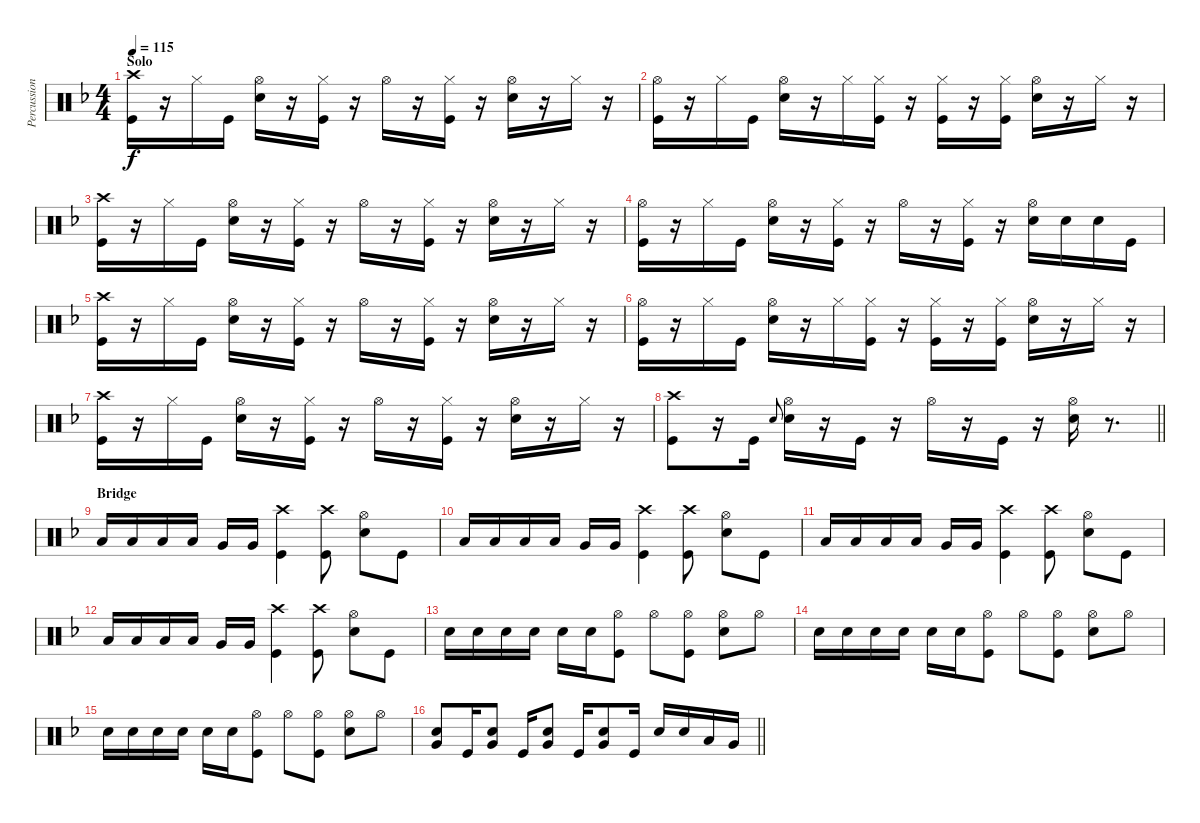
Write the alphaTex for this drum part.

\track ("Percussion" "Percussion") {instrument percussion}
\staff {score}
\articulation defaults
\ts (4 4)
\section ("" "Solo")
\tempo 115
\clef neutral
\ks f
("Crash high (hit)" "Kick (hit)").16{dy f} r.16 "Hi-Hat (closed)".16 "Kick (hit)".16 ("Hi-Hat (open)" "Electric Snare (hit)").16 r.16 ("Hi-Hat (closed)" "Kick (hit)").16 r.16 "Hi-Hat (open)".16 r.16 ("Hi-Hat (closed)" "Kick (hit)").16 r.16 ("Hi-Hat (open)" "Electric Snare (hit)").16 r.16 "Hi-Hat (closed)".16 r.16 |
("Hi-Hat (open)" "Kick (hit)").16 r.16 "Hi-Hat (closed)".16 "Kick (hit)".16 ("Hi-Hat (open)" "Electric Snare (hit)").16 r.16 "Hi-Hat (closed)".16 ("Hi-Hat (closed)" "Kick (hit)").16 r.16 ("Hi-Hat (closed)" "Kick (hit)").16 r.16 ("Hi-Hat (closed)" "Kick (hit)").16 ("Hi-Hat (open)" "Electric Snare (hit)").16 r.16 "Hi-Hat (closed)".16 r.16 |
("Crash high (hit)" "Kick (hit)").16 r.16 "Hi-Hat (closed)".16 "Kick (hit)".16 ("Hi-Hat (open)" "Electric Snare (hit)").16 r.16 ("Hi-Hat (closed)" "Kick (hit)").16 r.16 "Hi-Hat (open)".16 r.16 ("Hi-Hat (closed)" "Kick (hit)").16 r.16 ("Hi-Hat (open)" "Electric Snare (hit)").16 r.16 "Hi-Hat (closed)".16 r.16 |
("Hi-Hat (open)" "Kick (hit)").16 r.16 "Hi-Hat (closed)".16 "Kick (hit)".16 ("Hi-Hat (open)" "Electric Snare (hit)").16 r.16 ("Hi-Hat (closed)" "Kick (hit)").16 r.16 "Hi-Hat (open)".16 r.16 ("Hi-Hat (closed)" "Kick (hit)").16 r.16 ("Hi-Hat (open)" "Electric Snare (hit)").16 "Electric Snare (hit)".16 "Electric Snare (hit)".16 "Kick (hit)".16 |
("Crash high (hit)" "Kick (hit)").16 r.16 "Hi-Hat (closed)".16 "Kick (hit)".16 ("Hi-Hat (open)" "Electric Snare (hit)").16 r.16 ("Hi-Hat (closed)" "Kick (hit)").16 r.16 "Hi-Hat (open)".16 r.16 ("Hi-Hat (closed)" "Kick (hit)").16 r.16 ("Hi-Hat (open)" "Electric Snare (hit)").16 r.16 "Hi-Hat (closed)".16 r.16 |
("Hi-Hat (open)" "Kick (hit)").16 r.16 "Hi-Hat (closed)".16 "Kick (hit)".16 ("Hi-Hat (open)" "Electric Snare (hit)").16 r.16 "Hi-Hat (closed)".16 ("Hi-Hat (closed)" "Kick (hit)").16 r.16 ("Hi-Hat (closed)" "Kick (hit)").16 r.16 ("Hi-Hat (closed)" "Kick (hit)").16 ("Hi-Hat (open)" "Electric Snare (hit)").16 r.16 "Hi-Hat (closed)".16 r.16 |
("Crash high (hit)" "Kick (hit)").16 r.16 "Hi-Hat (closed)".16 "Kick (hit)".16 ("Hi-Hat (open)" "Electric Snare (hit)").16 r.16 ("Hi-Hat (closed)" "Kick (hit)").16 r.16 "Hi-Hat (open)".16 r.16 ("Hi-Hat (closed)" "Kick (hit)").16 r.16 ("Hi-Hat (open)" "Electric Snare (hit)").16 r.16 "Hi-Hat (closed)".16 r.16 |
\barLineRight lightlight
("Crash high (hit)" "Kick (hit)").8 r.16 "Kick (hit)".16 "Electric Snare (hit)".8{gr onbeat} ("Hi-Hat (open)" "Electric Snare (hit)").16 r.16 "Kick (hit)".16 r.16 "Hi-Hat (open)".16 r.16 "Kick (hit)".16 r.16 ("Hi-Hat (open)" "Electric Snare (hit)").16 r.8{d} |
\section ("" "Bridge")
"Low Tom (hit)".16 "Low Tom (hit)".16 "Low Tom (hit)".16 "Low Tom (hit)".16 "Very Low Tom (hit)".16 "Very Low Tom (hit)".16 ("Crash high (hit)" "Kick (hit)").4 ("Crash high (hit)" "Kick (hit)").8 ("Hi-Hat (open)" "Electric Snare (hit)").8 "Kick (hit)".8 |
"Low Tom (hit)".16 "Low Tom (hit)".16 "Low Tom (hit)".16 "Low Tom (hit)".16 "Very Low Tom (hit)".16 "Very Low Tom (hit)".16 ("Crash high (hit)" "Kick (hit)").4 ("Crash high (hit)" "Kick (hit)").8 ("Hi-Hat (open)" "Electric Snare (hit)").8 "Kick (hit)".8 |
"Low Tom (hit)".16 "Low Tom (hit)".16 "Low Tom (hit)".16 "Low Tom (hit)".16 "Very Low Tom (hit)".16 "Very Low Tom (hit)".16 ("Crash high (hit)" "Kick (hit)").4 ("Crash high (hit)" "Kick (hit)").8 ("Hi-Hat (open)" "Electric Snare (hit)").8 "Kick (hit)".8 |
"Low Tom (hit)".16 "Low Tom (hit)".16 "Low Tom (hit)".16 "Low Tom (hit)".16 "Very Low Tom (hit)".16 "Very Low Tom (hit)".16 ("Crash high (hit)" "Kick (hit)").4 ("Crash high (hit)" "Kick (hit)").8 ("Hi-Hat (open)" "Electric Snare (hit)").8 "Kick (hit)".8 |
"Electric Snare (hit)".16 "Electric Snare (hit)".16 "Electric Snare (hit)".16 "Electric Snare (hit)".16 "Electric Snare (hit)".16 "Electric Snare (hit)".16 ("Hi-Hat (open)" "Kick (hit)").8 "Hi-Hat (open)".8 ("Hi-Hat (open)" "Kick (hit)").8 ("Hi-Hat (open)" "Electric Snare (hit)").8 "Hi-Hat (open)".8 |
"Electric Snare (hit)".16 "Electric Snare (hit)".16 "Electric Snare (hit)".16 "Electric Snare (hit)".16 "Electric Snare (hit)".16 "Electric Snare (hit)".16 ("Hi-Hat (open)" "Kick (hit)").8 "Hi-Hat (open)".8 ("Hi-Hat (open)" "Kick (hit)").8 ("Hi-Hat (open)" "Electric Snare (hit)").8 "Hi-Hat (open)".8 |
"Electric Snare (hit)".16 "Electric Snare (hit)".16 "Electric Snare (hit)".16 "Electric Snare (hit)".16 "Electric Snare (hit)".16 "Electric Snare (hit)".16 ("Hi-Hat (open)" "Kick (hit)").8 "Hi-Hat (open)".8 ("Hi-Hat (open)" "Kick (hit)").8 ("Hi-Hat (open)" "Electric Snare (hit)").8 "Hi-Hat (open)".8 |
\barLineRight lightlight
("Electric Snare (hit)" "Very Low Tom (hit)").8 "Kick (hit)".16 ("Electric Snare (hit)" "Very Low Tom (hit)").8 "Kick (hit)".16 ("Electric Snare (hit)" "Very Low Tom (hit)").8 "Kick (hit)".16 ("Electric Snare (hit)" "Very Low Tom (hit)").8 "Kick (hit)".16 "Electric Snare (hit)".16 "Electric Snare (hit)".16 "Low Tom (hit)".16 "Very Low Tom (hit)".16
